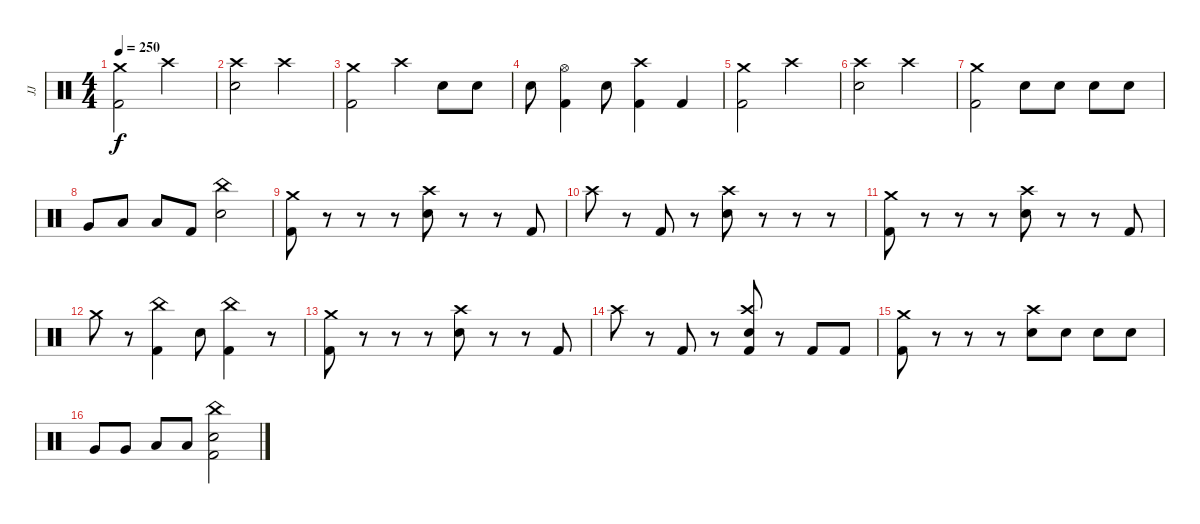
\track ("JJ" "JJ") {instrument percussion}
\staff {score}
\articulation defaults
\ts (4 4)
\tempo 250
\clef neutral
\ks c
("Crash medium (hit)" "Kick (hit) 2").2{dy f} "Crash high (hit)".2 |
("Crash high (hit)" "Electric Snare (hit)").2 "Crash high (hit)".2 |
("Crash medium (hit)" "Kick (hit) 2").2 "Crash high (hit)".4 "Electric Snare (hit)".8 "Electric Snare (hit)".8 |
"Electric Snare (hit)".8 ("Hi-Hat (open)" "Kick (hit) 2").4 "Electric Snare (hit)".8 ("Crash high (hit)" "Kick (hit) 2").4 "Kick (hit) 2".4 |
("Crash medium (hit)" "Kick (hit) 2").2 "Crash high (hit)".2 |
("Crash high (hit)" "Electric Snare (hit)").2 "Crash high (hit)".2 |
("Crash medium (hit)" "Kick (hit) 2").2 "Electric Snare (hit)".8 "Electric Snare (hit)".8 "Electric Snare (hit)".8 "Electric Snare (hit)".8 |
"Very Low Tom (hit)".8 "Low Floor Tom (hit)".8 "Low Floor Tom (hit)".8 "Kick (hit) 2".8 ("China (hit)" "Electric Snare (hit)").2 |
("Crash medium (hit)" "Kick (hit) 2").8 r.8 r.8 r.8 ("Crash high (hit)" "Electric Snare (hit)").8 r.8 r.8 "Kick (hit) 2".8 |
"Crash high (hit)".8 r.8 "Kick (hit) 2".8 r.8 ("Crash high (hit)" "Electric Snare (hit)").8 r.8 r.8 r.8 |
("Crash medium (hit)" "Kick (hit) 2").8 r.8 r.8 r.8 ("Crash high (hit)" "Electric Snare (hit)").8 r.8 r.8 "Kick (hit) 2".8 |
"Crash medium (hit)".8 r.8 ("China (hit)" "Kick (hit) 2").4 "Electric Snare (hit)".8 ("China (hit)" "Kick (hit) 2").4 r.8 |
("Crash medium (hit)" "Kick (hit) 2").8 r.8 r.8 r.8 ("Crash high (hit)" "Electric Snare (hit)").8 r.8 r.8 "Kick (hit) 2".8 |
"Crash high (hit)".8 r.8 "Kick (hit) 2".8 r.8 ("Crash high (hit)" "Electric Snare (hit)" "Kick (hit) 2").8 r.8 "Kick (hit) 2".8 "Kick (hit) 2".8 |
("Crash medium (hit)" "Kick (hit) 2").8 r.8 r.8 r.8 ("Crash high (hit)" "Electric Snare (hit)").8 "Electric Snare (hit)".8 "Electric Snare (hit)".8 "Electric Snare (hit)".8 |
"Very Low Tom (hit)".8 "Very Low Tom (hit)".8 "Low Floor Tom (hit)".8 "Low Floor Tom (hit)".8 ("China (hit)" "Electric Snare (hit)" "Kick (hit) 2").2
